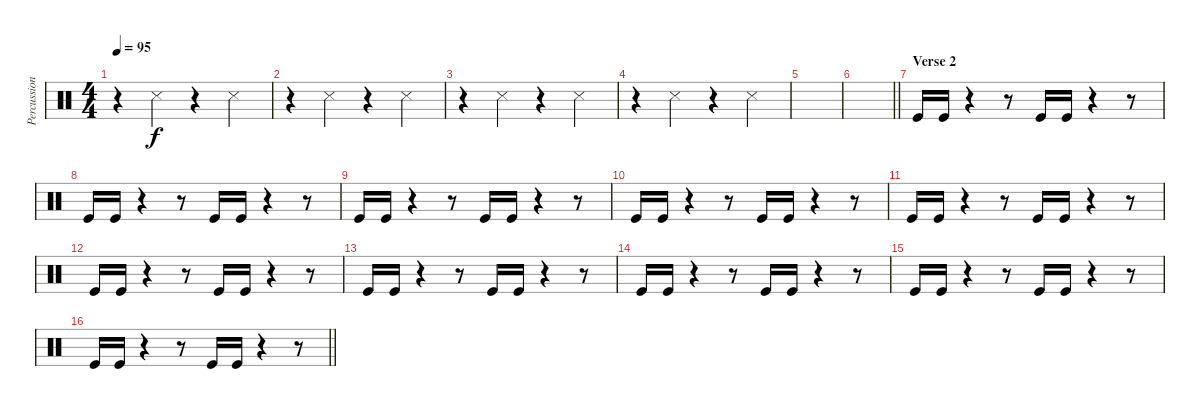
\track ("Percussion" "Percussion") {instrument percussion}
\staff {score}
\articulation defaults
\ts (4 4)
\tempo 95
\clef neutral
\ks c
r.4{dy f} "Snare (side stick) 3".4 r.4 "Snare (side stick) 3".4 |
r.4 "Snare (side stick) 3".4 r.4 "Snare (side stick) 3".4 |
r.4 "Snare (side stick) 3".4 r.4 "Snare (side stick) 3".4 |
r.4 "Snare (side stick) 3".4 r.4 "Snare (side stick) 3".4 |
|
\barLineRight lightlight
|
\section ("" "Verse 2")
"Kick (hit)".16{volume 11} "Kick (hit)".16 r.4 r.8 "Kick (hit)".16 "Kick (hit)".16 r.4 r.8 |
"Kick (hit)".16 "Kick (hit)".16 r.4 r.8 "Kick (hit)".16 "Kick (hit)".16 r.4 r.8 |
"Kick (hit)".16 "Kick (hit)".16 r.4 r.8 "Kick (hit)".16 "Kick (hit)".16 r.4 r.8 |
"Kick (hit)".16 "Kick (hit)".16 r.4 r.8 "Kick (hit)".16 "Kick (hit)".16 r.4 r.8 |
"Kick (hit)".16 "Kick (hit)".16 r.4 r.8 "Kick (hit)".16 "Kick (hit)".16 r.4 r.8 |
"Kick (hit)".16 "Kick (hit)".16 r.4 r.8 "Kick (hit)".16 "Kick (hit)".16 r.4 r.8 |
"Kick (hit)".16 "Kick (hit)".16 r.4 r.8 "Kick (hit)".16 "Kick (hit)".16 r.4 r.8 |
"Kick (hit)".16 "Kick (hit)".16 r.4 r.8 "Kick (hit)".16 "Kick (hit)".16 r.4 r.8 |
"Kick (hit)".16 "Kick (hit)".16 r.4 r.8 "Kick (hit)".16 "Kick (hit)".16 r.4 r.8 |
\barLineRight lightlight "Kick (hit)".16 "Kick (hit)".16
r.4 r.8 "Kick (hit)".16 "Kick (hit)".16 r.4 r.8
